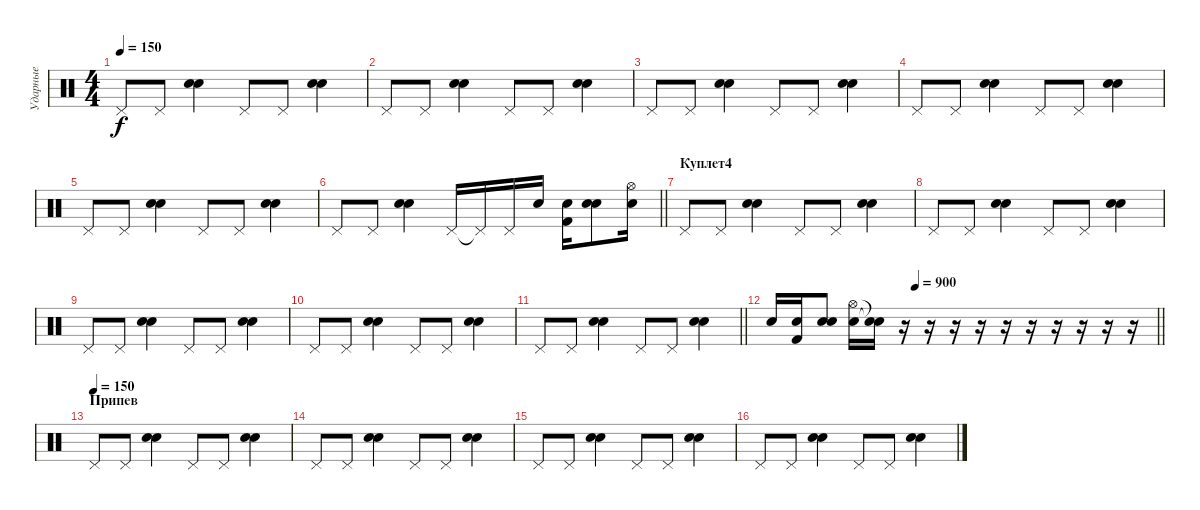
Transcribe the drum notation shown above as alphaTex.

\track ("Ударные" "Ударные") {instrument percussion}
\staff {score}
\articulation defaults
\ts (4 4)
\tempo 150
\clef neutral
\ks c "Pedal Hi-Hat (hit)".8{dy f} "Pedal Hi-Hat (hit)".8
("Electric Snare (hit)" "Snare (hit) 2").4 "Pedal Hi-Hat (hit)".8 "Pedal Hi-Hat (hit)".8 ("Electric Snare (hit)" "Snare (hit) 2").4 |
"Pedal Hi-Hat (hit)".8 "Pedal Hi-Hat (hit)".8 ("Electric Snare (hit)" "Snare (hit) 2").4 "Pedal Hi-Hat (hit)".8 "Pedal Hi-Hat (hit)".8 ("Electric Snare (hit)" "Snare (hit) 2").4 |
"Pedal Hi-Hat (hit)".8 "Pedal Hi-Hat (hit)".8 ("Electric Snare (hit)" "Snare (hit) 2").4 "Pedal Hi-Hat (hit)".8 "Pedal Hi-Hat (hit)".8 ("Electric Snare (hit)" "Snare (hit) 2").4 |
"Pedal Hi-Hat (hit)".8 "Pedal Hi-Hat (hit)".8 ("Electric Snare (hit)" "Snare (hit) 2").4 "Pedal Hi-Hat (hit)".8 "Pedal Hi-Hat (hit)".8 ("Electric Snare (hit)" "Snare (hit) 2").4 |
"Pedal Hi-Hat (hit)".8 "Pedal Hi-Hat (hit)".8 ("Electric Snare (hit)" "Snare (hit) 2").4 "Pedal Hi-Hat (hit)".8 "Pedal Hi-Hat (hit)".8 ("Electric Snare (hit)" "Snare (hit) 2").4 |
\barLineRight lightlight "Pedal Hi-Hat (hit)".8 "Pedal Hi-Hat (hit)".8
("Electric Snare (hit)" "Snare (hit) 2").4 "Pedal Hi-Hat (hit)".16 "Pedal Hi-Hat (hit)"{t}.16 "Pedal Hi-Hat (hit)".16 "Electric Snare (hit)".16 ("Electric Snare (hit)" "Kick (hit) 2").16 ("Electric Snare (hit)" "Snare (hit) 2").8 ("Hi-Hat (open)" "Electric Snare (hit)").16 |
\section ("" "Куплет4")
"Pedal Hi-Hat (hit)".8 "Pedal Hi-Hat (hit)".8 ("Electric Snare (hit)" "Snare (hit) 2").4 "Pedal Hi-Hat (hit)".8 "Pedal Hi-Hat (hit)".8 ("Electric Snare (hit)" "Snare (hit) 2").4 |
"Pedal Hi-Hat (hit)".8 "Pedal Hi-Hat (hit)".8 ("Electric Snare (hit)" "Snare (hit) 2").4 "Pedal Hi-Hat (hit)".8 "Pedal Hi-Hat (hit)".8 ("Electric Snare (hit)" "Snare (hit) 2").4 |
"Pedal Hi-Hat (hit)".8 "Pedal Hi-Hat (hit)".8 ("Electric Snare (hit)" "Snare (hit) 2").4 "Pedal Hi-Hat (hit)".8 "Pedal Hi-Hat (hit)".8 ("Electric Snare (hit)" "Snare (hit) 2").4 |
"Pedal Hi-Hat (hit)".8 "Pedal Hi-Hat (hit)".8 ("Electric Snare (hit)" "Snare (hit) 2").4 "Pedal Hi-Hat (hit)".8 "Pedal Hi-Hat (hit)".8 ("Electric Snare (hit)" "Snare (hit) 2").4 |
\barLineRight lightlight "Pedal Hi-Hat (hit)".8 "Pedal Hi-Hat (hit)".8
("Electric Snare (hit)" "Snare (hit) 2").4 "Pedal Hi-Hat (hit)".8 "Pedal Hi-Hat (hit)".8 ("Electric Snare (hit)" "Snare (hit) 2").4 |
\tempo (900 0.375)
\barLineRight lightlight "Electric Snare (hit)".16
("Electric Snare (hit)" "Kick (hit) 2").16 ("Electric Snare (hit)" "Snare (hit) 2").8 ("Hi-Hat (open)" "Electric Snare (hit)").16 ("Snare (hit)"{t} "Snare (hit)"{t}).16 r.16 r.16 r.16 r.16 r.16 r.16 r.16 r.16 r.16 r.16 |
\section ("" "Припев")
\tempo (150)
"Pedal Hi-Hat (hit)".8 "Pedal Hi-Hat (hit)".8 ("Electric Snare (hit)" "Snare (hit) 2").4 "Pedal Hi-Hat (hit)".8 "Pedal Hi-Hat (hit)".8 ("Electric Snare (hit)" "Snare (hit) 2").4 |
"Pedal Hi-Hat (hit)".8 "Pedal Hi-Hat (hit)".8 ("Electric Snare (hit)" "Snare (hit) 2").4 "Pedal Hi-Hat (hit)".8 "Pedal Hi-Hat (hit)".8 ("Electric Snare (hit)" "Snare (hit) 2").4 |
"Pedal Hi-Hat (hit)".8 "Pedal Hi-Hat (hit)".8 ("Electric Snare (hit)" "Snare (hit) 2").4 "Pedal Hi-Hat (hit)".8 "Pedal Hi-Hat (hit)".8 ("Electric Snare (hit)" "Snare (hit) 2").4 |
"Pedal Hi-Hat (hit)".8 "Pedal Hi-Hat (hit)".8 ("Electric Snare (hit)" "Snare (hit) 2").4 "Pedal Hi-Hat (hit)".8 "Pedal Hi-Hat (hit)".8 ("Electric Snare (hit)" "Snare (hit) 2").4
